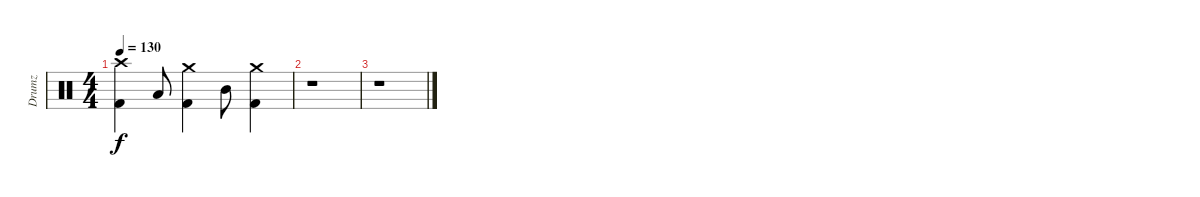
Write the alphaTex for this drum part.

\track ("Drumz" "Drumz") {instrument percussion}
\staff {score}
\articulation defaults
\ts (4 4)
\tempo 130
\clef neutral
\ks c
("Kick (hit) 2" "Crash high (hit)").4{dy f} "Low Tom (hit)".8 ("Kick (hit) 2" "Crash medium (hit)").4 "Mid Tom (hit)".8 ("Kick (hit) 2" "Crash medium (hit)").4 |
r.1 |
r.1
